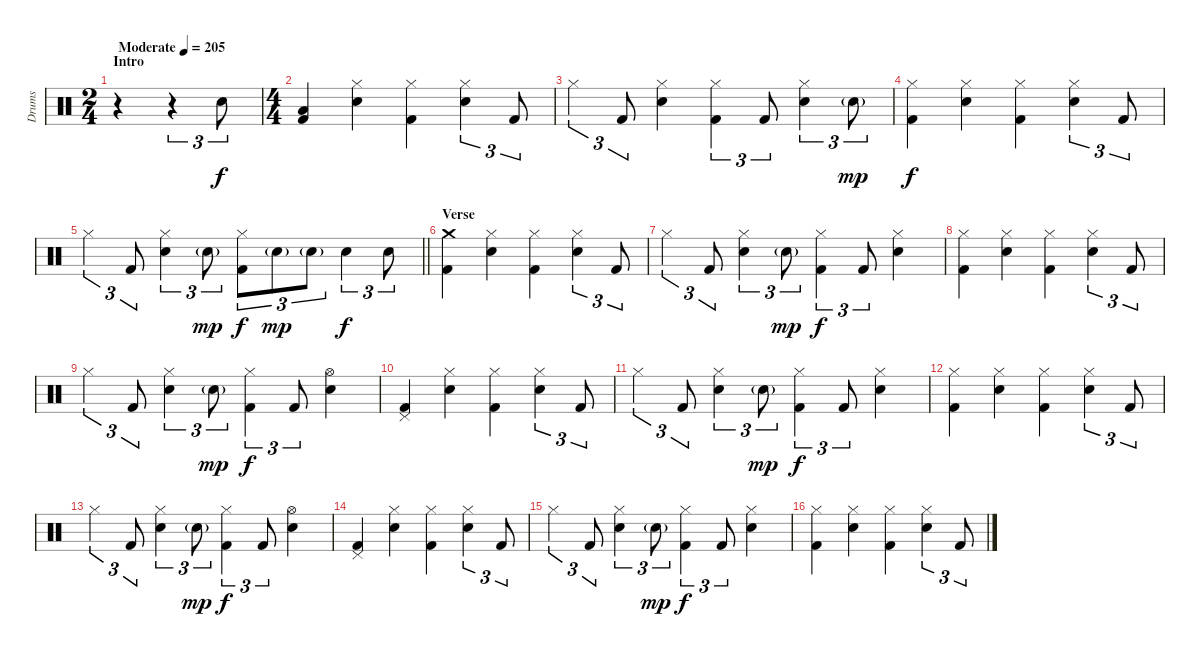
\track ("Drums" "Drums") {instrument percussion}
\staff {score}
\articulation defaults
\ts (2 4)
\section ("" "Intro")
\tempo (205 "Moderate")
\clef neutral
\ks c
r.4{dy f} r.4{tu (3 2)} "Electric Snare (hit)".8{tu (3 2)} |
\ts (4 4)
("Low Floor Tom (hit)" "Kick (hit) 2").4 ("Hi-Hat (closed)" "Electric Snare (hit)").4 ("Hi-Hat (closed)" "Kick (hit) 2").4 ("Hi-Hat (closed)" "Electric Snare (hit)").4{tu (3 2)} "Kick (hit) 2".8{tu (3 2)} |
"Hi-Hat (closed)".4{tu (3 2)} "Kick (hit) 2".8{tu (3 2)} ("Hi-Hat (closed)" "Electric Snare (hit)").4 ("Hi-Hat (closed)" "Kick (hit) 2").4{tu (3 2)} "Kick (hit) 2".8{tu (3 2)} ("Hi-Hat (closed)" "Electric Snare (hit)").4{tu (3 2)} "Electric Snare (hit)"{g}.8{tu (3 2) dy mp} |
("Hi-Hat (closed)" "Kick (hit) 2").4{dy f} ("Hi-Hat (closed)" "Electric Snare (hit)").4 ("Hi-Hat (closed)" "Kick (hit) 2").4 ("Hi-Hat (closed)" "Electric Snare (hit)").4{tu (3 2)} "Kick (hit) 2".8{tu (3 2)} |
\barLineRight lightlight "Hi-Hat (closed)".4{tu (3 2)} "Kick (hit) 2".8{tu (3 2)}
("Hi-Hat (closed)" "Electric Snare (hit)").4{tu (3 2)} "Electric Snare (hit)"{g}.8{tu (3 2) dy mp} ("Hi-Hat (closed)" "Kick (hit) 2").8{tu (3 2) dy f} "Electric Snare (hit)"{g}.8{tu (3 2) dy mp} "Electric Snare (hit)"{g}.8{tu (3 2)} "Electric Snare (hit)".4{tu (3 2) dy f} "Electric Snare (hit)".8{tu (3 2)} |
\section ("" "Verse ")
("Crash medium (hit)" "Kick (hit) 2").4 ("Hi-Hat (closed)" "Electric Snare (hit)").4 ("Hi-Hat (closed)" "Kick (hit) 2").4 ("Hi-Hat (closed)" "Electric Snare (hit)").4{tu (3 2)} "Kick (hit) 2".8{tu (3 2)} |
"Hi-Hat (closed)".4{tu (3 2)} "Kick (hit) 2".8{tu (3 2)} ("Hi-Hat (closed)" "Electric Snare (hit)").4{tu (3 2)} "Electric Snare (hit)"{g}.8{tu (3 2) dy mp} ("Hi-Hat (closed)" "Kick (hit) 2").4{tu (3 2) dy f} "Kick (hit) 2".8{tu (3 2)} ("Hi-Hat (closed)" "Electric Snare (hit)").4 |
("Hi-Hat (closed)" "Kick (hit) 2").4 ("Hi-Hat (closed)" "Electric Snare (hit)").4 ("Hi-Hat (closed)" "Kick (hit) 2").4 ("Hi-Hat (closed)" "Electric Snare (hit)").4{tu (3 2)} "Kick (hit) 2".8{tu (3 2)} |
"Hi-Hat (closed)".4{tu (3 2)} "Kick (hit) 2".8{tu (3 2)} ("Hi-Hat (closed)" "Electric Snare (hit)").4{tu (3 2)} "Electric Snare (hit)"{g}.8{tu (3 2) dy mp} ("Hi-Hat (closed)" "Kick (hit) 2").4{tu (3 2) dy f} "Kick (hit) 2".8{tu (3 2)} ("Hi-Hat (open)" "Electric Snare (hit)").4 |
("Pedal Hi-Hat (hit)" "Kick (hit) 2").4 ("Hi-Hat (closed)" "Electric Snare (hit)").4 ("Hi-Hat (closed)" "Kick (hit) 2").4 ("Hi-Hat (closed)" "Electric Snare (hit)").4{tu (3 2)} "Kick (hit) 2".8{tu (3 2)} |
"Hi-Hat (closed)".4{tu (3 2)} "Kick (hit) 2".8{tu (3 2)} ("Hi-Hat (closed)" "Electric Snare (hit)").4{tu (3 2)} "Electric Snare (hit)"{g}.8{tu (3 2) dy mp} ("Hi-Hat (closed)" "Kick (hit) 2").4{tu (3 2) dy f} "Kick (hit) 2".8{tu (3 2)} ("Hi-Hat (closed)" "Electric Snare (hit)").4 |
("Hi-Hat (closed)" "Kick (hit) 2").4 ("Hi-Hat (closed)" "Electric Snare (hit)").4 ("Hi-Hat (closed)" "Kick (hit) 2").4 ("Hi-Hat (closed)" "Electric Snare (hit)").4{tu (3 2)} "Kick (hit) 2".8{tu (3 2)} |
"Hi-Hat (closed)".4{tu (3 2)} "Kick (hit) 2".8{tu (3 2)} ("Hi-Hat (closed)" "Electric Snare (hit)").4{tu (3 2)} "Electric Snare (hit)"{g}.8{tu (3 2) dy mp} ("Hi-Hat (closed)" "Kick (hit) 2").4{tu (3 2) dy f} "Kick (hit) 2".8{tu (3 2)} ("Hi-Hat (open)" "Electric Snare (hit)").4 |
("Pedal Hi-Hat (hit)" "Kick (hit) 2").4 ("Hi-Hat (closed)" "Electric Snare (hit)").4 ("Hi-Hat (closed)" "Kick (hit) 2").4 ("Hi-Hat (closed)" "Electric Snare (hit)").4{tu (3 2)} "Kick (hit) 2".8{tu (3 2)} |
"Hi-Hat (closed)".4{tu (3 2)} "Kick (hit) 2".8{tu (3 2)} ("Hi-Hat (closed)" "Electric Snare (hit)").4{tu (3 2)} "Electric Snare (hit)"{g}.8{tu (3 2) dy mp} ("Hi-Hat (closed)" "Kick (hit) 2").4{tu (3 2) dy f} "Kick (hit) 2".8{tu (3 2)} ("Hi-Hat (closed)" "Electric Snare (hit)").4 |
("Hi-Hat (closed)" "Kick (hit) 2").4 ("Hi-Hat (closed)" "Electric Snare (hit)").4 ("Hi-Hat (closed)" "Kick (hit) 2").4 ("Hi-Hat (closed)" "Electric Snare (hit)").4{tu (3 2)} "Kick (hit) 2".8{tu (3 2)}
